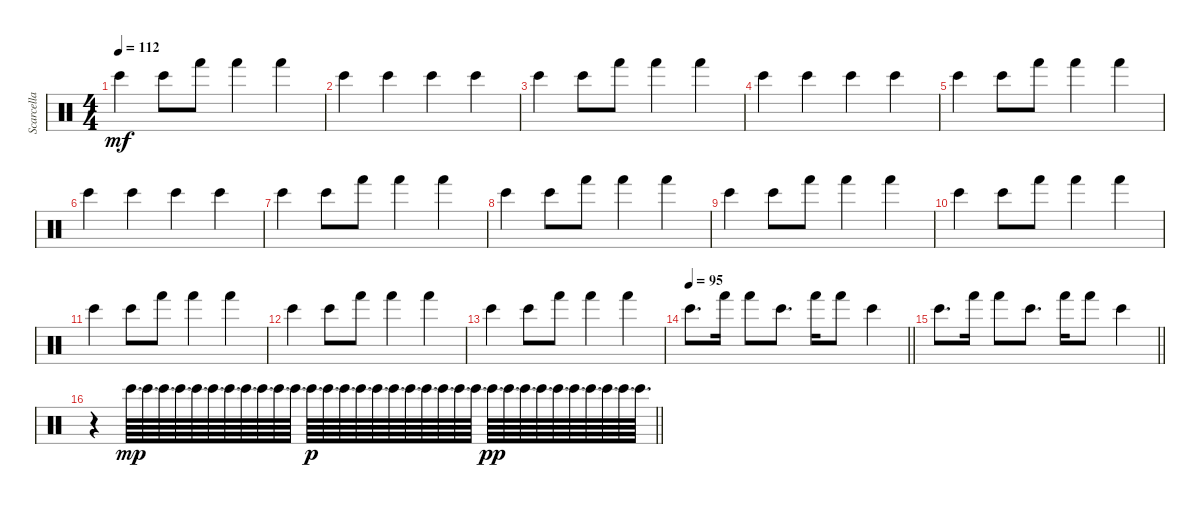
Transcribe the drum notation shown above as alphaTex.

\track ("Scarcella" "Scarcella") {instrument percussion}
\staff {score}
\articulation defaults
\ts (4 4)
\tempo 112
\clef neutral
\ks c "Bongo High (hit)".4{dy mf} "Bongo High (hit)".8 "Hand (hit)".8 "Hand (hit)".4 "Hand (hit)".4
|
"Bongo High (hit)".4 "Bongo High (hit)".4 "Bongo High (hit)".4 "Bongo High (hit)".4 |
"Bongo High (hit)".4 "Bongo High (hit)".8 "Hand (hit)".8 "Hand (hit)".4 "Hand (hit)".4 |
"Bongo High (hit)".4 "Bongo High (hit)".4 "Bongo High (hit)".4 "Bongo High (hit)".4 |
"Bongo High (hit)".4 "Bongo High (hit)".8 "Hand (hit)".8 "Hand (hit)".4 "Hand (hit)".4 |
"Bongo High (hit)".4 "Bongo High (hit)".4 "Bongo High (hit)".4 "Bongo High (hit)".4 |
"Bongo High (hit)".4 "Bongo High (hit)".8 "Hand (hit)".8 "Hand (hit)".4 "Hand (hit)".4 |
"Bongo High (hit)".4 "Bongo High (hit)".8 "Hand (hit)".8 "Hand (hit)".4 "Hand (hit)".4 |
"Bongo High (hit)".4 "Bongo High (hit)".8 "Hand (hit)".8 "Hand (hit)".4 "Hand (hit)".4 |
"Bongo High (hit)".4 "Bongo High (hit)".8 "Hand (hit)".8 "Hand (hit)".4 "Hand (hit)".4 |
"Bongo High (hit)".4 "Bongo High (hit)".8 "Hand (hit)".8 "Hand (hit)".4 "Hand (hit)".4 |
"Bongo High (hit)".4 "Bongo High (hit)".8 "Hand (hit)".8 "Hand (hit)".4 "Hand (hit)".4 |
"Bongo High (hit)".4 "Bongo High (hit)".8 "Hand (hit)".8 "Hand (hit)".4 "Hand (hit)".4 |
\tempo 95
\barLineRight lightlight "Bongo High (hit)".8{d} "Hand (hit)".16 "Hand (hit)".8 "Bongo High (hit)".8{d} "Hand (hit)".16 "Hand (hit)".8 "Bongo High (hit)".4
|
\barLineRight lightlight "Bongo High (hit)".8{d} "Hand (hit)".16 "Hand (hit)".8 "Bongo High (hit)".8{d} "Hand (hit)".16 "Hand (hit)".8 "Bongo High (hit)".4
|
\barLineRight lightlight
r.4 "Bongo High (hit)".64{d dy mp} "Bongo High (hit)".64{d} "Bongo High (hit)".64{d} "Bongo High (hit)".64{d} "Bongo High (hit)".64{d} "Bongo High (hit)".64{d} "Bongo High (hit)".64{d} "Bongo High (hit)".64{d} "Bongo High (hit)".64{d} "Bongo High (hit)".64{d} "Bongo High (hit)".64{d} "Bongo High (hit)".64{d dy p} "Bongo High (hit)".64{d} "Bongo High (hit)".64{d} "Bongo High (hit)".64{d} "Bongo High (hit)".64{d} "Bongo High (hit)".64{d} "Bongo High (hit)".64{d} "Bongo High (hit)".64{d} "Bongo High (hit)".64{d} "Bongo High (hit)".64{d} "Bongo High (hit)".64{d} "Bongo High (hit)".64{d dy pp} "Bongo High (hit)".64{d} "Bongo High (hit)".64{d} "Bongo High (hit)".64{d} "Bongo High (hit)".64{d} "Bongo High (hit)".64{d} "Bongo High (hit)".64{d} "Bongo High (hit)".64{d} "Bongo High (hit)".64{d} "Bongo High (hit)".64{d}
